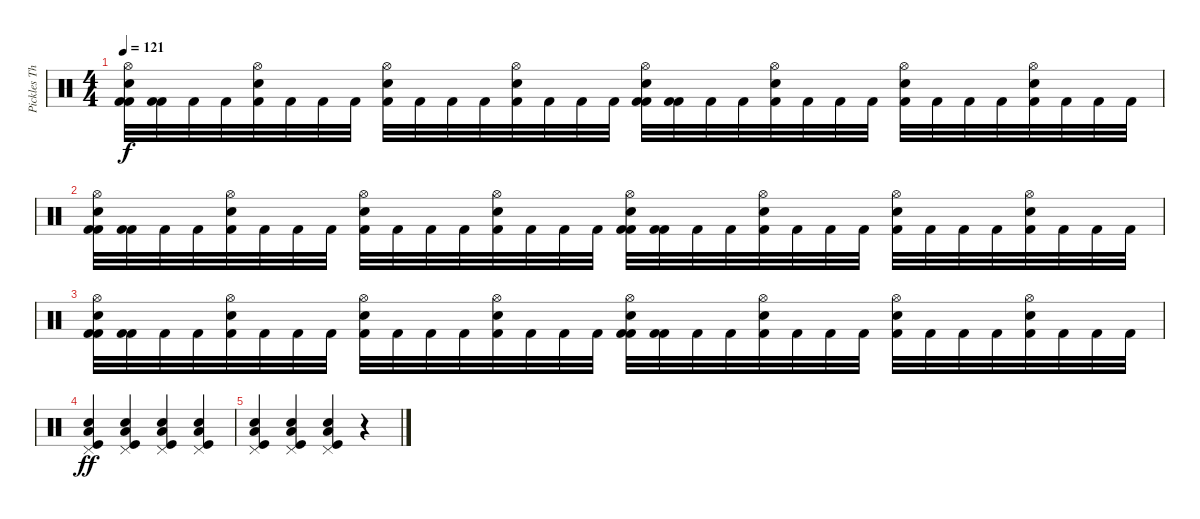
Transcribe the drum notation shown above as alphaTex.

\track ("Pickles The Drummer" "Pickles Th") {instrument percussion bank 4}
\staff {score}
\articulation defaults
\ts (4 4)
\tempo 121
\clef neutral
\ks c
("Hi-Hat (open)" "Snare (hit) 2" "Kick (hit) 2" "Kick (hit) 2").32{dy f} ("Kick (hit) 2" "Kick (hit) 2").32 "Kick (hit) 2".32 "Kick (hit) 2".32 ("Hi-Hat (open)" "Snare (hit) 2" "Kick (hit) 2").32 "Kick (hit) 2".32 "Kick (hit) 2".32 "Kick (hit) 2".32 ("Hi-Hat (open)" "Snare (hit) 2" "Kick (hit) 2").32 "Kick (hit) 2".32 "Kick (hit) 2".32 "Kick (hit) 2".32 ("Hi-Hat (open)" "Snare (hit) 2" "Kick (hit) 2").32 "Kick (hit) 2".32 "Kick (hit) 2".32 "Kick (hit) 2".32 ("Hi-Hat (open)" "Snare (hit) 2" "Kick (hit) 2" "Kick (hit) 2").32 ("Kick (hit) 2" "Kick (hit) 2").32 "Kick (hit) 2".32 "Kick (hit) 2".32 ("Hi-Hat (open)" "Snare (hit) 2" "Kick (hit) 2").32 "Kick (hit) 2".32 "Kick (hit) 2".32 "Kick (hit) 2".32 ("Hi-Hat (open)" "Snare (hit) 2" "Kick (hit) 2").32 "Kick (hit) 2".32 "Kick (hit) 2".32 "Kick (hit) 2".32 ("Hi-Hat (open)" "Snare (hit) 2" "Kick (hit) 2").32 "Kick (hit) 2".32 "Kick (hit) 2".32 "Kick (hit) 2".32 |
("Hi-Hat (open)" "Snare (hit) 2" "Kick (hit) 2" "Kick (hit) 2").32 ("Kick (hit) 2" "Kick (hit) 2").32 "Kick (hit) 2".32 "Kick (hit) 2".32 ("Hi-Hat (open)" "Snare (hit) 2" "Kick (hit) 2").32 "Kick (hit) 2".32 "Kick (hit) 2".32 "Kick (hit) 2".32 ("Hi-Hat (open)" "Snare (hit) 2" "Kick (hit) 2").32 "Kick (hit) 2".32 "Kick (hit) 2".32 "Kick (hit) 2".32 ("Hi-Hat (open)" "Snare (hit) 2" "Kick (hit) 2").32 "Kick (hit) 2".32 "Kick (hit) 2".32 "Kick (hit) 2".32 ("Hi-Hat (open)" "Snare (hit) 2" "Kick (hit) 2" "Kick (hit) 2").32 ("Kick (hit) 2" "Kick (hit) 2").32 "Kick (hit) 2".32 "Kick (hit) 2".32 ("Hi-Hat (open)" "Snare (hit) 2" "Kick (hit) 2").32 "Kick (hit) 2".32 "Kick (hit) 2".32 "Kick (hit) 2".32 ("Hi-Hat (open)" "Snare (hit) 2" "Kick (hit) 2").32 "Kick (hit) 2".32 "Kick (hit) 2".32 "Kick (hit) 2".32 ("Hi-Hat (open)" "Snare (hit) 2" "Kick (hit) 2").32 "Kick (hit) 2".32 "Kick (hit) 2".32 "Kick (hit) 2".32 |
("Hi-Hat (open)" "Snare (hit) 2" "Kick (hit) 2" "Kick (hit) 2").32 ("Kick (hit) 2" "Kick (hit) 2").32 "Kick (hit) 2".32 "Kick (hit) 2".32 ("Hi-Hat (open)" "Snare (hit) 2" "Kick (hit) 2").32 "Kick (hit) 2".32 "Kick (hit) 2".32 "Kick (hit) 2".32 ("Hi-Hat (open)" "Snare (hit) 2" "Kick (hit) 2").32 "Kick (hit) 2".32 "Kick (hit) 2".32 "Kick (hit) 2".32 ("Hi-Hat (open)" "Snare (hit) 2" "Kick (hit) 2").32 "Kick (hit) 2".32 "Kick (hit) 2".32 "Kick (hit) 2".32 ("Hi-Hat (open)" "Snare (hit) 2" "Kick (hit) 2" "Kick (hit) 2").32 ("Kick (hit) 2" "Kick (hit) 2").32 "Kick (hit) 2".32 "Kick (hit) 2".32 ("Hi-Hat (open)" "Snare (hit) 2" "Kick (hit) 2").32 "Kick (hit) 2".32 "Kick (hit) 2".32 "Kick (hit) 2".32 ("Hi-Hat (open)" "Snare (hit) 2" "Kick (hit) 2").32 "Kick (hit) 2".32 "Kick (hit) 2".32 "Kick (hit) 2".32 ("Hi-Hat (open)" "Snare (hit) 2" "Kick (hit) 2").32 "Kick (hit) 2".32 "Kick (hit) 2".32 "Kick (hit) 2".32 |
("Pedal Hi-Hat (hit)" "Snare (hit) 2" "Low Floor Tom (hit)" "Kick (hit)").4{dy ff} ("Pedal Hi-Hat (hit)" "Snare (hit) 2" "Low Floor Tom (hit)" "Kick (hit)").4 ("Pedal Hi-Hat (hit)" "Snare (hit) 2" "Low Floor Tom (hit)" "Kick (hit)").4 ("Pedal Hi-Hat (hit)" "Snare (hit) 2" "Low Floor Tom (hit)" "Kick (hit)").4 |
("Pedal Hi-Hat (hit)" "Snare (hit) 2" "Low Floor Tom (hit)" "Kick (hit)").4 ("Pedal Hi-Hat (hit)" "Snare (hit) 2" "Low Floor Tom (hit)" "Kick (hit)").4 ("Pedal Hi-Hat (hit)" "Snare (hit) 2" "Low Floor Tom (hit)" "Kick (hit)").4 r.4
